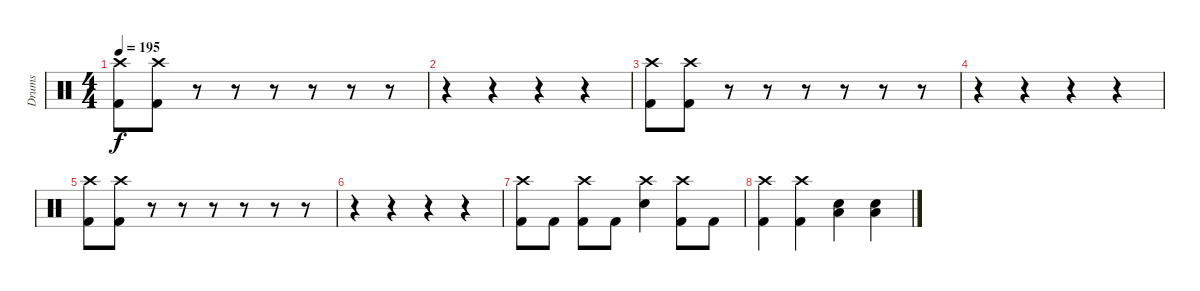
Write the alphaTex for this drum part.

\track ("Drums" "Drums") {instrument percussion}
\staff {score}
\articulation defaults
\ts (4 4)
\tempo 195
\clef neutral
\ks c
("Crash high (hit)" "Kick (hit) 2").8{dy f} ("Crash high (hit)" "Kick (hit) 2").8 r.8 r.8 r.8 r.8 r.8 r.8 |
r.4 r.4 r.4 r.4 |
("Crash high (hit)" "Kick (hit) 2").8 ("Crash high (hit)" "Kick (hit) 2").8 r.8 r.8 r.8 r.8 r.8 r.8 |
r.4 r.4 r.4 r.4 |
("Crash high (hit)" "Kick (hit) 2").8 ("Crash high (hit)" "Kick (hit) 2").8 r.8 r.8 r.8 r.8 r.8 r.8 |
r.4 r.4 r.4 r.4 |
("Crash high (hit)" "Kick (hit) 2").8 "Kick (hit) 2".8 ("Crash high (hit)" "Kick (hit) 2").8 "Kick (hit) 2".8 ("Crash high (hit)" "Snare (hit) 2").4 ("Crash high (hit)" "Kick (hit) 2").8 "Kick (hit) 2".8 |
("Crash high (hit)" "Kick (hit) 2").4 ("Crash high (hit)" "Kick (hit) 2").4 ("Low Tom (hit)" "Snare (hit) 2").4 ("Low Tom (hit)" "Snare (hit) 2").4
